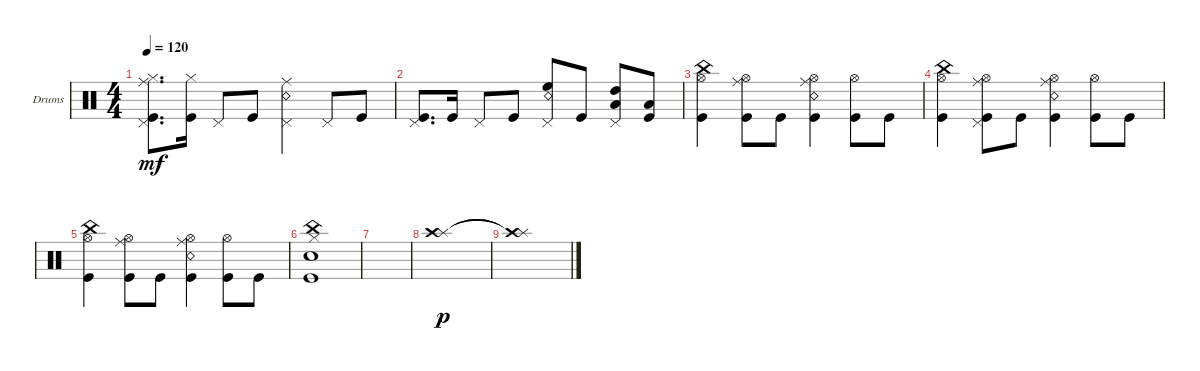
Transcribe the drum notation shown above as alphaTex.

\defaultSystemsLayout 4
\bracketExtendMode groupsimilarinstruments
\firstSystemTrackNameOrientation horizontal
\otherSystemsTrackNameOrientation horizontal
\track ("Drumkit" "Drums") {instrument percussion}
\staff {score}
\articulation defaults
\ts (4 4)
\tempo 120
\clef neutral
\ks c
("Kick (hit)" "Ride (middle)" "Hi-Hat (closed)" "Pedal Hi-Hat (hit)").8{d dy mf} ("Kick (hit)" "Hi-Hat (closed)").16 "Pedal Hi-Hat (hit)".8 "Kick (hit)".8 ("Snare (rim shot)" "Ride (middle)" "Pedal Hi-Hat (hit)").4 "Pedal Hi-Hat (hit)".8 "Kick (hit)".8 |
("Kick (hit)" "Pedal Hi-Hat (hit)").8{d} "Kick (hit)".16 "Pedal Hi-Hat (hit)".8 "Kick (hit)".8 ("Snare (rim shot)" "Pedal Hi-Hat (hit)" "High Floor Tom (hit)").8 "Kick (hit)".8 ("High Tom (hit)" "Pedal Hi-Hat (hit)" "Low Tom (hit)").8 ("Kick (hit)" "Low Tom (hit)").8 |
("Kick (hit)" "Hi-Hat (open)" "China (hit)").4 ("Kick (hit)" "Hi-Hat (open)" "Ride (middle)").8 "Kick (hit)".8 ("Kick (hit)" "Snare (rim shot)" "Hi-Hat (open)" "Ride (middle)").4 ("Kick (hit)" "Hi-Hat (open)").8 "Kick (hit)".8 |
("Kick (hit)" "Hi-Hat (open)" "China (hit)").4 ("Kick (hit)" "Hi-Hat (open)" "Pedal Hi-Hat (hit)" "Ride (middle)").8 "Kick (hit)".8 ("Kick (hit)" "Snare (rim shot)" "Hi-Hat (open)" "Ride (middle)").4 ("Kick (hit)" "Hi-Hat (open)").8 "Kick (hit)".8 |
("Kick (hit)" "Hi-Hat (open)" "China (hit)").4 ("Kick (hit)" "Hi-Hat (open)" "Ride (middle)").8 "Kick (hit)".8 ("Kick (hit)" "Snare (rim shot)" "Hi-Hat (open)" "Ride (middle)").4 ("Kick (hit)" "Hi-Hat (open)").8 "Kick (hit)".8 |
("Kick (hit)" "Snare (hit) 2" "Hi-Hat (closed)" "China (hit)").1 |
|
("Splash (hit)" "Crash high (hit)").1{dy p} |
("Splash (hit)"{t} "Crash high (hit)"{t}).1
